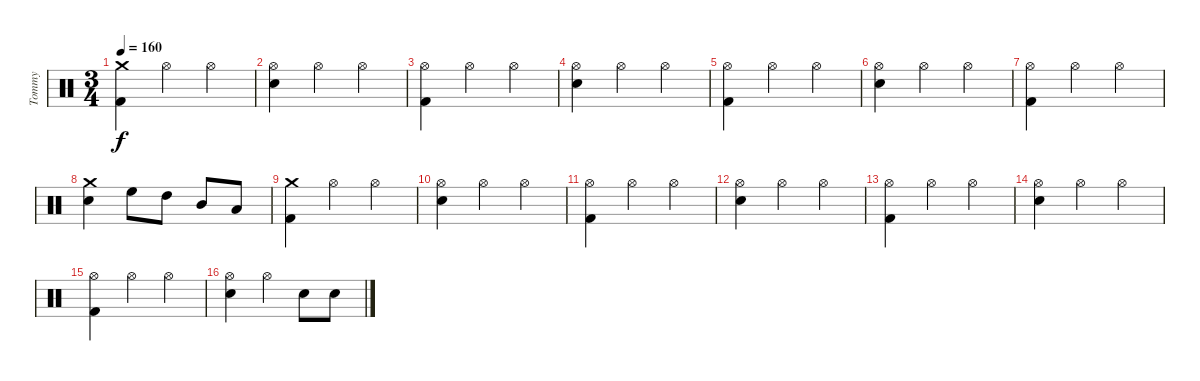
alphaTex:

\track ("Tommy" "Tommy") {instrument percussion}
\staff {score}
\articulation defaults
\ts (3 4)
\tempo 160
\clef neutral
\ks c
("Crash medium (hit)" "Kick (hit) 2").4{dy f} "Hi-Hat (open)".4 "Hi-Hat (open)".4 |
("Hi-Hat (open)" "Electric Snare (hit)").4 "Hi-Hat (open)".4 "Hi-Hat (open)".4 |
("Hi-Hat (open)" "Kick (hit) 2").4 "Hi-Hat (open)".4 "Hi-Hat (open)".4 |
("Hi-Hat (open)" "Electric Snare (hit)").4 "Hi-Hat (open)".4 "Hi-Hat (open)".4 |
("Hi-Hat (open)" "Kick (hit) 2").4 "Hi-Hat (open)".4 "Hi-Hat (open)".4 |
("Hi-Hat (open)" "Electric Snare (hit)").4 "Hi-Hat (open)".4 "Hi-Hat (open)".4 |
("Hi-Hat (open)" "Kick (hit) 2").4 "Hi-Hat (open)".4 "Hi-Hat (open)".4 |
("Crash medium (hit)" "Electric Snare (hit)").4 "High Floor Tom (hit)".8 "High Tom (hit)".8 "Mid Tom (hit)".8 "Low Tom (hit)".8 |
("Crash medium (hit)" "Kick (hit) 2").4 "Hi-Hat (open)".4 "Hi-Hat (open)".4 |
("Hi-Hat (open)" "Electric Snare (hit)").4 "Hi-Hat (open)".4 "Hi-Hat (open)".4 |
("Hi-Hat (open)" "Kick (hit) 2").4 "Hi-Hat (open)".4 "Hi-Hat (open)".4 |
("Hi-Hat (open)" "Electric Snare (hit)").4 "Hi-Hat (open)".4 "Hi-Hat (open)".4 |
("Hi-Hat (open)" "Kick (hit) 2").4 "Hi-Hat (open)".4 "Hi-Hat (open)".4 |
("Hi-Hat (open)" "Electric Snare (hit)").4 "Hi-Hat (open)".4 "Hi-Hat (open)".4 |
("Hi-Hat (open)" "Kick (hit) 2").4 "Hi-Hat (open)".4 "Hi-Hat (open)".4 |
("Hi-Hat (open)" "Electric Snare (hit)").4 "Hi-Hat (open)".4 "Electric Snare (hit)".8 "Electric Snare (hit)".8
